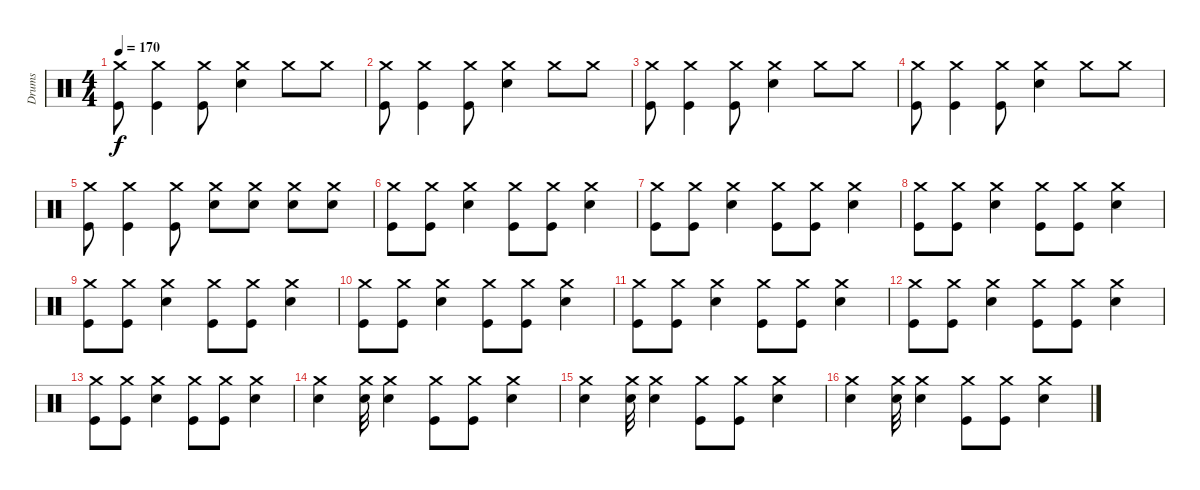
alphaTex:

\track ("Drums" "Drums") {instrument percussion}
\staff {score}
\articulation defaults
\ts (4 4)
\tempo 170
\clef neutral
\ks c
("Crash medium (hit)" "Kick (hit)").8{dy f} ("Crash medium (hit)" "Kick (hit)").4 ("Crash medium (hit)" "Kick (hit)").8 ("Crash medium (hit)" "Electric Snare (hit)").4 "Crash medium (hit)".8 "Crash medium (hit)".8 |
("Crash medium (hit)" "Kick (hit)").8 ("Crash medium (hit)" "Kick (hit)").4 ("Crash medium (hit)" "Kick (hit)").8 ("Crash medium (hit)" "Electric Snare (hit)").4 "Crash medium (hit)".8 "Crash medium (hit)".8 |
("Crash medium (hit)" "Kick (hit)").8 ("Crash medium (hit)" "Kick (hit)").4 ("Crash medium (hit)" "Kick (hit)").8 ("Crash medium (hit)" "Electric Snare (hit)").4 "Crash medium (hit)".8 "Crash medium (hit)".8 |
("Crash medium (hit)" "Kick (hit)").8 ("Crash medium (hit)" "Kick (hit)").4 ("Crash medium (hit)" "Kick (hit)").8 ("Crash medium (hit)" "Electric Snare (hit)").4 "Crash medium (hit)".8 "Crash medium (hit)".8 |
("Crash medium (hit)" "Kick (hit)").8 ("Crash medium (hit)" "Kick (hit)").4 ("Crash medium (hit)" "Kick (hit)").8 ("Crash medium (hit)" "Electric Snare (hit)").8 ("Crash medium (hit)" "Electric Snare (hit)").8 ("Crash medium (hit)" "Electric Snare (hit)").8 ("Crash medium (hit)" "Electric Snare (hit)").8 |
("Crash medium (hit)" "Kick (hit)").8 ("Crash medium (hit)" "Kick (hit)").8 ("Crash medium (hit)" "Electric Snare (hit)").4 ("Crash medium (hit)" "Kick (hit)").8 ("Crash medium (hit)" "Kick (hit)").8 ("Crash medium (hit)" "Electric Snare (hit)").4 |
("Crash medium (hit)" "Kick (hit)").8 ("Crash medium (hit)" "Kick (hit)").8 ("Crash medium (hit)" "Electric Snare (hit)").4 ("Crash medium (hit)" "Kick (hit)").8 ("Crash medium (hit)" "Kick (hit)").8 ("Crash medium (hit)" "Electric Snare (hit)").4 |
("Crash medium (hit)" "Kick (hit)").8 ("Crash medium (hit)" "Kick (hit)").8 ("Crash medium (hit)" "Electric Snare (hit)").4 ("Crash medium (hit)" "Kick (hit)").8 ("Crash medium (hit)" "Kick (hit)").8 ("Crash medium (hit)" "Electric Snare (hit)").4 |
("Crash medium (hit)" "Kick (hit)").8 ("Crash medium (hit)" "Kick (hit)").8 ("Crash medium (hit)" "Electric Snare (hit)").4 ("Crash medium (hit)" "Kick (hit)").8 ("Crash medium (hit)" "Kick (hit)").8 ("Crash medium (hit)" "Electric Snare (hit)").4 |
("Crash medium (hit)" "Kick (hit)").8 ("Crash medium (hit)" "Kick (hit)").8 ("Crash medium (hit)" "Electric Snare (hit)").4 ("Crash medium (hit)" "Kick (hit)").8 ("Crash medium (hit)" "Kick (hit)").8 ("Crash medium (hit)" "Electric Snare (hit)").4 |
("Crash medium (hit)" "Kick (hit)").8 ("Crash medium (hit)" "Kick (hit)").8 ("Crash medium (hit)" "Electric Snare (hit)").4 ("Crash medium (hit)" "Kick (hit)").8 ("Crash medium (hit)" "Kick (hit)").8 ("Crash medium (hit)" "Electric Snare (hit)").4 |
("Crash medium (hit)" "Kick (hit)").8 ("Crash medium (hit)" "Kick (hit)").8 ("Crash medium (hit)" "Electric Snare (hit)").4 ("Crash medium (hit)" "Kick (hit)").8 ("Crash medium (hit)" "Kick (hit)").8 ("Crash medium (hit)" "Electric Snare (hit)").4 |
("Crash medium (hit)" "Kick (hit)").8 ("Crash medium (hit)" "Kick (hit)").8 ("Crash medium (hit)" "Electric Snare (hit)").4 ("Crash medium (hit)" "Kick (hit)").8 ("Crash medium (hit)" "Kick (hit)").8 ("Crash medium (hit)" "Electric Snare (hit)").4 |
("Crash medium (hit)" "Electric Snare (hit)").4 ("Crash medium (hit)" "Electric Snare (hit)").32 ("Crash medium (hit)" "Electric Snare (hit)").4 ("Crash medium (hit)" "Kick (hit)").8 ("Crash medium (hit)" "Kick (hit)").8 ("Crash medium (hit)" "Electric Snare (hit)").4 |
("Crash medium (hit)" "Electric Snare (hit)").4 ("Crash medium (hit)" "Electric Snare (hit)").32 ("Crash medium (hit)" "Electric Snare (hit)").4 ("Crash medium (hit)" "Kick (hit)").8 ("Crash medium (hit)" "Kick (hit)").8 ("Crash medium (hit)" "Electric Snare (hit)").4 |
("Crash medium (hit)" "Electric Snare (hit)").4 ("Crash medium (hit)" "Electric Snare (hit)").32 ("Crash medium (hit)" "Electric Snare (hit)").4 ("Crash medium (hit)" "Kick (hit)").8 ("Crash medium (hit)" "Kick (hit)").8 ("Crash medium (hit)" "Electric Snare (hit)").4
